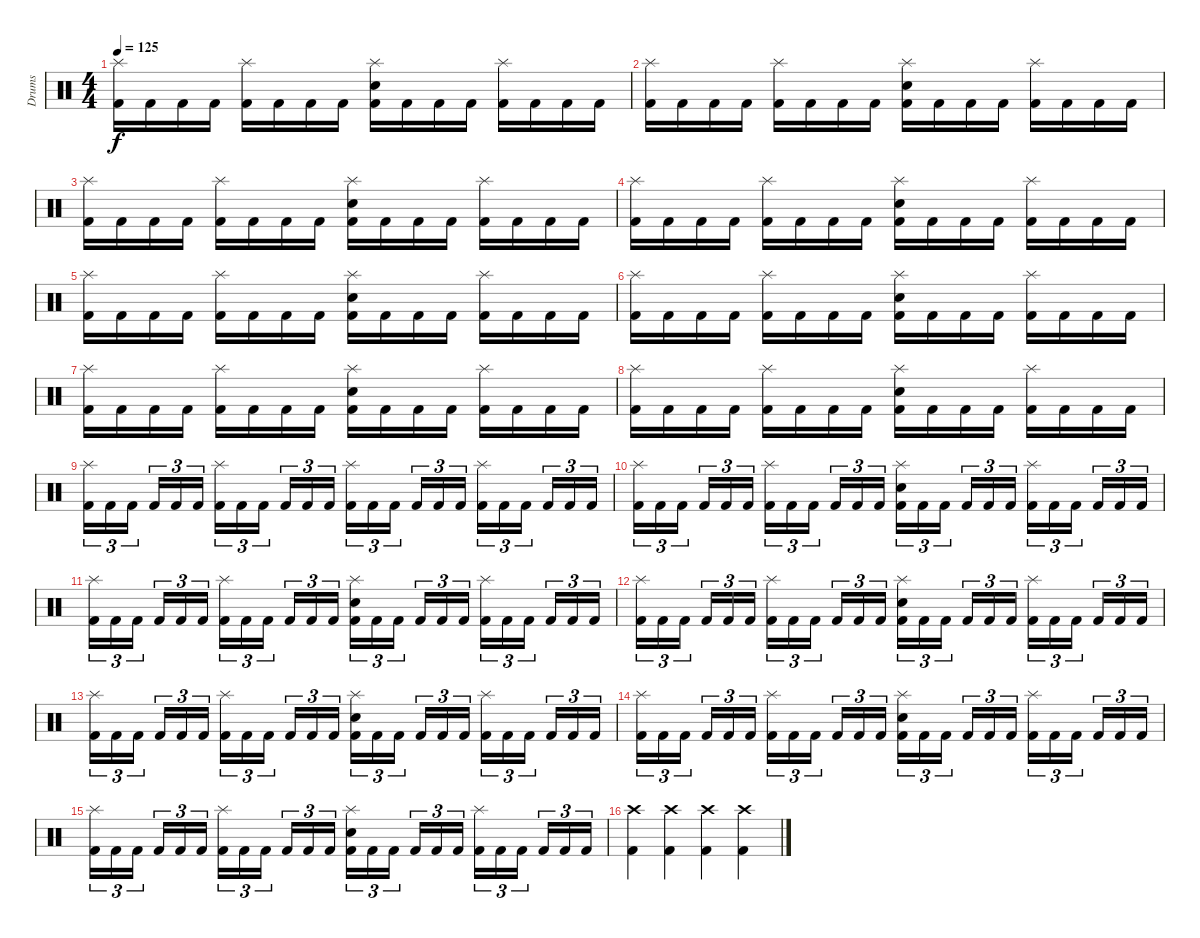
\track ("Drums" "Drums") {instrument percussion}
\staff {score}
\articulation defaults
\ts (4 4)
\tempo 125
\clef neutral
\ks c
("Splash (hit)" "Kick (hit) 2").16{dy f} "Kick (hit) 2".16 "Kick (hit) 2".16 "Kick (hit) 2".16 ("Splash (hit)" "Kick (hit) 2").16 "Kick (hit) 2".16 "Kick (hit) 2".16 "Kick (hit) 2".16 ("Splash (hit)" "Electric Snare (hit)" "Kick (hit) 2").16 "Kick (hit) 2".16 "Kick (hit) 2".16 "Kick (hit) 2".16 ("Splash (hit)" "Kick (hit) 2").16 "Kick (hit) 2".16 "Kick (hit) 2".16 "Kick (hit) 2".16 |
("Splash (hit)" "Kick (hit) 2").16 "Kick (hit) 2".16 "Kick (hit) 2".16 "Kick (hit) 2".16 ("Splash (hit)" "Kick (hit) 2").16 "Kick (hit) 2".16 "Kick (hit) 2".16 "Kick (hit) 2".16 ("Splash (hit)" "Electric Snare (hit)" "Kick (hit) 2").16 "Kick (hit) 2".16 "Kick (hit) 2".16 "Kick (hit) 2".16 ("Splash (hit)" "Kick (hit) 2").16 "Kick (hit) 2".16 "Kick (hit) 2".16 "Kick (hit) 2".16 |
("Splash (hit)" "Kick (hit) 2").16 "Kick (hit) 2".16 "Kick (hit) 2".16 "Kick (hit) 2".16 ("Splash (hit)" "Kick (hit) 2").16 "Kick (hit) 2".16 "Kick (hit) 2".16 "Kick (hit) 2".16 ("Splash (hit)" "Electric Snare (hit)" "Kick (hit) 2").16 "Kick (hit) 2".16 "Kick (hit) 2".16 "Kick (hit) 2".16 ("Splash (hit)" "Kick (hit) 2").16 "Kick (hit) 2".16 "Kick (hit) 2".16 "Kick (hit) 2".16 |
("Splash (hit)" "Kick (hit) 2").16 "Kick (hit) 2".16 "Kick (hit) 2".16 "Kick (hit) 2".16 ("Splash (hit)" "Kick (hit) 2").16 "Kick (hit) 2".16 "Kick (hit) 2".16 "Kick (hit) 2".16 ("Splash (hit)" "Electric Snare (hit)" "Kick (hit) 2").16 "Kick (hit) 2".16 "Kick (hit) 2".16 "Kick (hit) 2".16 ("Splash (hit)" "Kick (hit) 2").16 "Kick (hit) 2".16 "Kick (hit) 2".16 "Kick (hit) 2".16 |
("Splash (hit)" "Kick (hit) 2").16 "Kick (hit) 2".16 "Kick (hit) 2".16 "Kick (hit) 2".16 ("Splash (hit)" "Kick (hit) 2").16 "Kick (hit) 2".16 "Kick (hit) 2".16 "Kick (hit) 2".16 ("Splash (hit)" "Electric Snare (hit)" "Kick (hit) 2").16 "Kick (hit) 2".16 "Kick (hit) 2".16 "Kick (hit) 2".16 ("Splash (hit)" "Kick (hit) 2").16 "Kick (hit) 2".16 "Kick (hit) 2".16 "Kick (hit) 2".16 |
("Splash (hit)" "Kick (hit) 2").16 "Kick (hit) 2".16 "Kick (hit) 2".16 "Kick (hit) 2".16 ("Splash (hit)" "Kick (hit) 2").16 "Kick (hit) 2".16 "Kick (hit) 2".16 "Kick (hit) 2".16 ("Splash (hit)" "Electric Snare (hit)" "Kick (hit) 2").16 "Kick (hit) 2".16 "Kick (hit) 2".16 "Kick (hit) 2".16 ("Splash (hit)" "Kick (hit) 2").16 "Kick (hit) 2".16 "Kick (hit) 2".16 "Kick (hit) 2".16 |
("Splash (hit)" "Kick (hit) 2").16 "Kick (hit) 2".16 "Kick (hit) 2".16 "Kick (hit) 2".16 ("Splash (hit)" "Kick (hit) 2").16 "Kick (hit) 2".16 "Kick (hit) 2".16 "Kick (hit) 2".16 ("Splash (hit)" "Electric Snare (hit)" "Kick (hit) 2").16 "Kick (hit) 2".16 "Kick (hit) 2".16 "Kick (hit) 2".16 ("Splash (hit)" "Kick (hit) 2").16 "Kick (hit) 2".16 "Kick (hit) 2".16 "Kick (hit) 2".16 |
("Splash (hit)" "Kick (hit) 2").16 "Kick (hit) 2".16 "Kick (hit) 2".16 "Kick (hit) 2".16 ("Splash (hit)" "Kick (hit) 2").16 "Kick (hit) 2".16 "Kick (hit) 2".16 "Kick (hit) 2".16 ("Splash (hit)" "Electric Snare (hit)" "Kick (hit) 2").16 "Kick (hit) 2".16 "Kick (hit) 2".16 "Kick (hit) 2".16 ("Splash (hit)" "Kick (hit) 2").16 "Kick (hit) 2".16 "Kick (hit) 2".16 "Kick (hit) 2".16 |
("Splash (hit)" "Kick (hit) 2").16{tu (3 2)} "Kick (hit) 2".16{tu (3 2)} "Kick (hit) 2".16{tu (3 2) beam splitsecondary} "Kick (hit) 2".16{tu (3 2)} "Kick (hit) 2".16{tu (3 2)} "Kick (hit) 2".16{tu (3 2)} ("Splash (hit)" "Kick (hit) 2").16{tu (3 2)} "Kick (hit) 2".16{tu (3 2)} "Kick (hit) 2".16{tu (3 2) beam splitsecondary} "Kick (hit) 2".16{tu (3 2)} "Kick (hit) 2".16{tu (3 2)} "Kick (hit) 2".16{tu (3 2)} ("Splash (hit)" "Kick (hit) 2").16{tu (3 2)} "Kick (hit) 2".16{tu (3 2)} "Kick (hit) 2".16{tu (3 2) beam splitsecondary} "Kick (hit) 2".16{tu (3 2)} "Kick (hit) 2".16{tu (3 2)} "Kick (hit) 2".16{tu (3 2)} ("Splash (hit)" "Kick (hit) 2").16{tu (3 2)} "Kick (hit) 2".16{tu (3 2)} "Kick (hit) 2".16{tu (3 2) beam splitsecondary} "Kick (hit) 2".16{tu (3 2)} "Kick (hit) 2".16{tu (3 2)} "Kick (hit) 2".16{tu (3 2)} |
("Splash (hit)" "Kick (hit) 2").16{tu (3 2)} "Kick (hit) 2".16{tu (3 2)} "Kick (hit) 2".16{tu (3 2) beam splitsecondary} "Kick (hit) 2".16{tu (3 2)} "Kick (hit) 2".16{tu (3 2)} "Kick (hit) 2".16{tu (3 2)} ("Splash (hit)" "Kick (hit) 2").16{tu (3 2)} "Kick (hit) 2".16{tu (3 2)} "Kick (hit) 2".16{tu (3 2) beam splitsecondary} "Kick (hit) 2".16{tu (3 2)} "Kick (hit) 2".16{tu (3 2)} "Kick (hit) 2".16{tu (3 2)} ("Splash (hit)" "Electric Snare (hit)" "Kick (hit) 2").16{tu (3 2)} "Kick (hit) 2".16{tu (3 2)} "Kick (hit) 2".16{tu (3 2) beam splitsecondary} "Kick (hit) 2".16{tu (3 2)} "Kick (hit) 2".16{tu (3 2)} "Kick (hit) 2".16{tu (3 2)} ("Splash (hit)" "Kick (hit) 2").16{tu (3 2)} "Kick (hit) 2".16{tu (3 2)} "Kick (hit) 2".16{tu (3 2) beam splitsecondary} "Kick (hit) 2".16{tu (3 2)} "Kick (hit) 2".16{tu (3 2)} "Kick (hit) 2".16{tu (3 2)} |
("Splash (hit)" "Kick (hit) 2").16{tu (3 2)} "Kick (hit) 2".16{tu (3 2)} "Kick (hit) 2".16{tu (3 2) beam splitsecondary} "Kick (hit) 2".16{tu (3 2)} "Kick (hit) 2".16{tu (3 2)} "Kick (hit) 2".16{tu (3 2)} ("Splash (hit)" "Kick (hit) 2").16{tu (3 2)} "Kick (hit) 2".16{tu (3 2)} "Kick (hit) 2".16{tu (3 2) beam splitsecondary} "Kick (hit) 2".16{tu (3 2)} "Kick (hit) 2".16{tu (3 2)} "Kick (hit) 2".16{tu (3 2)} ("Splash (hit)" "Electric Snare (hit)" "Kick (hit) 2").16{tu (3 2)} "Kick (hit) 2".16{tu (3 2)} "Kick (hit) 2".16{tu (3 2) beam splitsecondary} "Kick (hit) 2".16{tu (3 2)} "Kick (hit) 2".16{tu (3 2)} "Kick (hit) 2".16{tu (3 2)} ("Splash (hit)" "Kick (hit) 2").16{tu (3 2)} "Kick (hit) 2".16{tu (3 2)} "Kick (hit) 2".16{tu (3 2) beam splitsecondary} "Kick (hit) 2".16{tu (3 2)} "Kick (hit) 2".16{tu (3 2)} "Kick (hit) 2".16{tu (3 2)} |
("Splash (hit)" "Kick (hit) 2").16{tu (3 2)} "Kick (hit) 2".16{tu (3 2)} "Kick (hit) 2".16{tu (3 2) beam splitsecondary} "Kick (hit) 2".16{tu (3 2)} "Kick (hit) 2".16{tu (3 2)} "Kick (hit) 2".16{tu (3 2)} ("Splash (hit)" "Kick (hit) 2").16{tu (3 2)} "Kick (hit) 2".16{tu (3 2)} "Kick (hit) 2".16{tu (3 2) beam splitsecondary} "Kick (hit) 2".16{tu (3 2)} "Kick (hit) 2".16{tu (3 2)} "Kick (hit) 2".16{tu (3 2)} ("Splash (hit)" "Electric Snare (hit)" "Kick (hit) 2").16{tu (3 2)} "Kick (hit) 2".16{tu (3 2)} "Kick (hit) 2".16{tu (3 2) beam splitsecondary} "Kick (hit) 2".16{tu (3 2)} "Kick (hit) 2".16{tu (3 2)} "Kick (hit) 2".16{tu (3 2)} ("Splash (hit)" "Kick (hit) 2").16{tu (3 2)} "Kick (hit) 2".16{tu (3 2)} "Kick (hit) 2".16{tu (3 2) beam splitsecondary} "Kick (hit) 2".16{tu (3 2)} "Kick (hit) 2".16{tu (3 2)} "Kick (hit) 2".16{tu (3 2)} |
("Splash (hit)" "Kick (hit) 2").16{tu (3 2)} "Kick (hit) 2".16{tu (3 2)} "Kick (hit) 2".16{tu (3 2) beam splitsecondary} "Kick (hit) 2".16{tu (3 2)} "Kick (hit) 2".16{tu (3 2)} "Kick (hit) 2".16{tu (3 2)} ("Splash (hit)" "Kick (hit) 2").16{tu (3 2)} "Kick (hit) 2".16{tu (3 2)} "Kick (hit) 2".16{tu (3 2) beam splitsecondary} "Kick (hit) 2".16{tu (3 2)} "Kick (hit) 2".16{tu (3 2)} "Kick (hit) 2".16{tu (3 2)} ("Splash (hit)" "Electric Snare (hit)" "Kick (hit) 2").16{tu (3 2)} "Kick (hit) 2".16{tu (3 2)} "Kick (hit) 2".16{tu (3 2) beam splitsecondary} "Kick (hit) 2".16{tu (3 2)} "Kick (hit) 2".16{tu (3 2)} "Kick (hit) 2".16{tu (3 2)} ("Splash (hit)" "Kick (hit) 2").16{tu (3 2)} "Kick (hit) 2".16{tu (3 2)} "Kick (hit) 2".16{tu (3 2) beam splitsecondary} "Kick (hit) 2".16{tu (3 2)} "Kick (hit) 2".16{tu (3 2)} "Kick (hit) 2".16{tu (3 2)} |
("Splash (hit)" "Kick (hit) 2").16{tu (3 2)} "Kick (hit) 2".16{tu (3 2)} "Kick (hit) 2".16{tu (3 2) beam splitsecondary} "Kick (hit) 2".16{tu (3 2)} "Kick (hit) 2".16{tu (3 2)} "Kick (hit) 2".16{tu (3 2)} ("Splash (hit)" "Kick (hit) 2").16{tu (3 2)} "Kick (hit) 2".16{tu (3 2)} "Kick (hit) 2".16{tu (3 2) beam splitsecondary} "Kick (hit) 2".16{tu (3 2)} "Kick (hit) 2".16{tu (3 2)} "Kick (hit) 2".16{tu (3 2)} ("Splash (hit)" "Electric Snare (hit)" "Kick (hit) 2").16{tu (3 2)} "Kick (hit) 2".16{tu (3 2)} "Kick (hit) 2".16{tu (3 2) beam splitsecondary} "Kick (hit) 2".16{tu (3 2)} "Kick (hit) 2".16{tu (3 2)} "Kick (hit) 2".16{tu (3 2)} ("Splash (hit)" "Kick (hit) 2").16{tu (3 2)} "Kick (hit) 2".16{tu (3 2)} "Kick (hit) 2".16{tu (3 2) beam splitsecondary} "Kick (hit) 2".16{tu (3 2)} "Kick (hit) 2".16{tu (3 2)} "Kick (hit) 2".16{tu (3 2)} |
("Splash (hit)" "Kick (hit) 2").16{tu (3 2)} "Kick (hit) 2".16{tu (3 2)} "Kick (hit) 2".16{tu (3 2) beam splitsecondary} "Kick (hit) 2".16{tu (3 2)} "Kick (hit) 2".16{tu (3 2)} "Kick (hit) 2".16{tu (3 2)} ("Splash (hit)" "Kick (hit) 2").16{tu (3 2)} "Kick (hit) 2".16{tu (3 2)} "Kick (hit) 2".16{tu (3 2) beam splitsecondary} "Kick (hit) 2".16{tu (3 2)} "Kick (hit) 2".16{tu (3 2)} "Kick (hit) 2".16{tu (3 2)} ("Splash (hit)" "Electric Snare (hit)" "Kick (hit) 2").16{tu (3 2)} "Kick (hit) 2".16{tu (3 2)} "Kick (hit) 2".16{tu (3 2) beam splitsecondary} "Kick (hit) 2".16{tu (3 2)} "Kick (hit) 2".16{tu (3 2)} "Kick (hit) 2".16{tu (3 2)} ("Splash (hit)" "Kick (hit) 2").16{tu (3 2)} "Kick (hit) 2".16{tu (3 2)} "Kick (hit) 2".16{tu (3 2) beam splitsecondary} "Kick (hit) 2".16{tu (3 2)} "Kick (hit) 2".16{tu (3 2)} "Kick (hit) 2".16{tu (3 2)} |
("Crash high (hit)" "Kick (hit) 2").4 ("Crash high (hit)" "Kick (hit) 2").4 ("Crash high (hit)" "Kick (hit) 2").4 ("Crash high (hit)" "Kick (hit) 2").4
